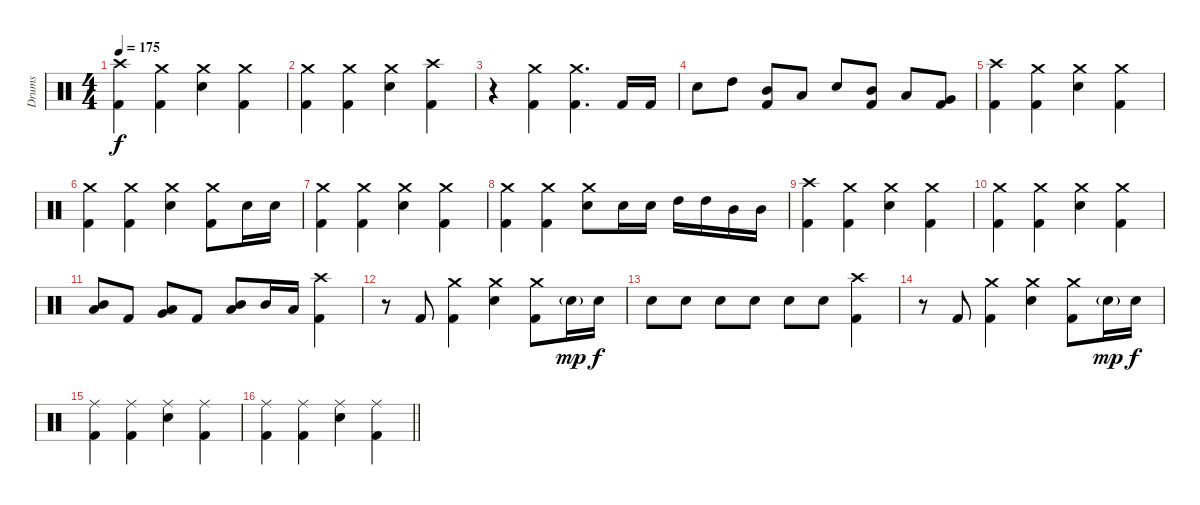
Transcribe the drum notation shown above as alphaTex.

\track ("Drums" "Drums") {instrument percussion}
\staff {score}
\articulation defaults
\ts (4 4)
\tempo 175
\clef neutral
\ks c
("Crash high (hit)" "Kick (hit) 2").4{dy f} ("Crash medium (hit)" "Kick (hit) 2").4 ("Crash medium (hit)" "Electric Snare (hit)").4 ("Crash medium (hit)" "Kick (hit) 2").4 |
("Crash medium (hit)" "Kick (hit) 2").4 ("Crash medium (hit)" "Kick (hit) 2").4 ("Crash medium (hit)" "Electric Snare (hit)").4 ("Crash high (hit)" "Kick (hit) 2").4 |
r.4 ("Crash medium (hit)" "Kick (hit) 2").4 ("Crash medium (hit)" "Kick (hit) 2").4{d} "Kick (hit) 2".16 "Kick (hit) 2".16 |
"Electric Snare (hit)".8 "High Tom (hit)".8 ("Mid Tom (hit)" "Kick (hit) 2").8 "Low Tom (hit)".8 "Electric Snare (hit)".8 ("Mid Tom (hit)" "Kick (hit) 2").8 "Low Tom (hit)".8 ("Very Low Tom (hit)" "Kick (hit) 2").8 |
("Crash high (hit)" "Kick (hit) 2").4 ("Crash medium (hit)" "Kick (hit) 2").4 ("Crash medium (hit)" "Electric Snare (hit)").4 ("Crash medium (hit)" "Kick (hit) 2").4 |
("Crash medium (hit)" "Kick (hit) 2").4 ("Crash medium (hit)" "Kick (hit) 2").4 ("Crash medium (hit)" "Electric Snare (hit)").4 ("Crash medium (hit)" "Kick (hit) 2").8 "Electric Snare (hit)".16 "Electric Snare (hit)".16 |
("Crash medium (hit)" "Kick (hit) 2").4 ("Crash medium (hit)" "Kick (hit) 2").4 ("Crash medium (hit)" "Electric Snare (hit)").4 ("Crash medium (hit)" "Kick (hit) 2").4 |
("Crash medium (hit)" "Kick (hit) 2").4 ("Crash medium (hit)" "Kick (hit) 2").4 ("Crash medium (hit)" "Electric Snare (hit)").8 "Electric Snare (hit)".16 "Electric Snare (hit)".16 "High Tom (hit)".16 "High Tom (hit)".16 "Mid Tom (hit)".16 "Mid Tom (hit)".16 |
("Crash high (hit)" "Kick (hit) 2").4 ("Crash medium (hit)" "Kick (hit) 2").4 ("Crash medium (hit)" "Electric Snare (hit)").4 ("Crash medium (hit)" "Kick (hit) 2").4 |
("Crash medium (hit)" "Kick (hit) 2").4 ("Crash medium (hit)" "Kick (hit) 2").4 ("Crash medium (hit)" "Electric Snare (hit)").4 ("Crash medium (hit)" "Kick (hit) 2").4 |
("Low Tom (hit)" "Mid Tom (hit)").8 "Kick (hit) 2".8 ("Very Low Tom (hit)" "Low Tom (hit)").8 "Kick (hit) 2".8 ("Low Tom (hit)" "Mid Tom (hit)").8 "Mid Tom (hit)".16 "Low Tom (hit)".16 ("Crash high (hit)" "Kick (hit) 2").4 |
r.8 "Kick (hit) 2".8 ("Crash medium (hit)" "Kick (hit) 2").4 ("Crash medium (hit)" "Electric Snare (hit)").4 ("Crash medium (hit)" "Kick (hit) 2").8 "Electric Snare (hit)"{g}.16{dy mp} "Electric Snare (hit)".16{dy f} |
"Electric Snare (hit)".8 "Electric Snare (hit)".8 "Electric Snare (hit)".8 "Electric Snare (hit)".8 "Electric Snare (hit)".8 "Electric Snare (hit)".8 ("Crash high (hit)" "Kick (hit) 2").4 |
r.8 "Kick (hit) 2".8 ("Crash medium (hit)" "Kick (hit) 2").4 ("Crash medium (hit)" "Electric Snare (hit)").4 ("Crash medium (hit)" "Kick (hit) 2").8 "Electric Snare (hit)"{g}.16{dy mp} "Electric Snare (hit)".16{dy f} |
("Ride (middle)" "Kick (hit) 2").4 ("Ride (middle)" "Kick (hit) 2").4 ("Ride (middle)" "Electric Snare (hit)").4 ("Ride (middle)" "Kick (hit) 2").4 |
\barLineRight lightlight
("Ride (middle)" "Kick (hit) 2").4 ("Ride (middle)" "Kick (hit) 2").4 ("Ride (middle)" "Electric Snare (hit)").4 ("Ride (middle)" "Kick (hit) 2").4
